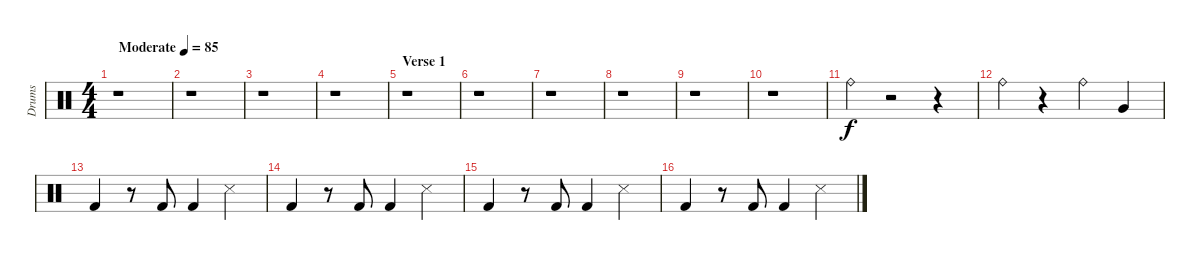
\track ("Drums" "Drums") {instrument percussion}
\staff {score}
\articulation defaults
\ts (4 4)
\tempo (85 "Moderate")
\clef neutral
\ks c
r.1{dy f} |
r.1 |
r.1 |
r.1 |
\section ("" "Verse 1")
r.1 |
r.1 |
r.1 |
r.1 |
r.1 |
r.1 |
"Ride (bell)".4 r.2 r.4 |
"Ride (bell)".4 r.4 "Ride (bell)".4 "Very Low Tom (hit)".4 |
"Kick (hit) 2".4 r.8 "Kick (hit) 2".8 "Kick (hit) 2".4 "Snare (side stick) 3".4 |
"Kick (hit) 2".4 r.8 "Kick (hit) 2".8 "Kick (hit) 2".4 "Snare (side stick) 3".4 |
"Kick (hit) 2".4 r.8 "Kick (hit) 2".8 "Kick (hit) 2".4 "Snare (side stick) 3".4 |
"Kick (hit) 2".4 r.8 "Kick (hit) 2".8 "Kick (hit) 2".4 "Snare (side stick) 3".4
